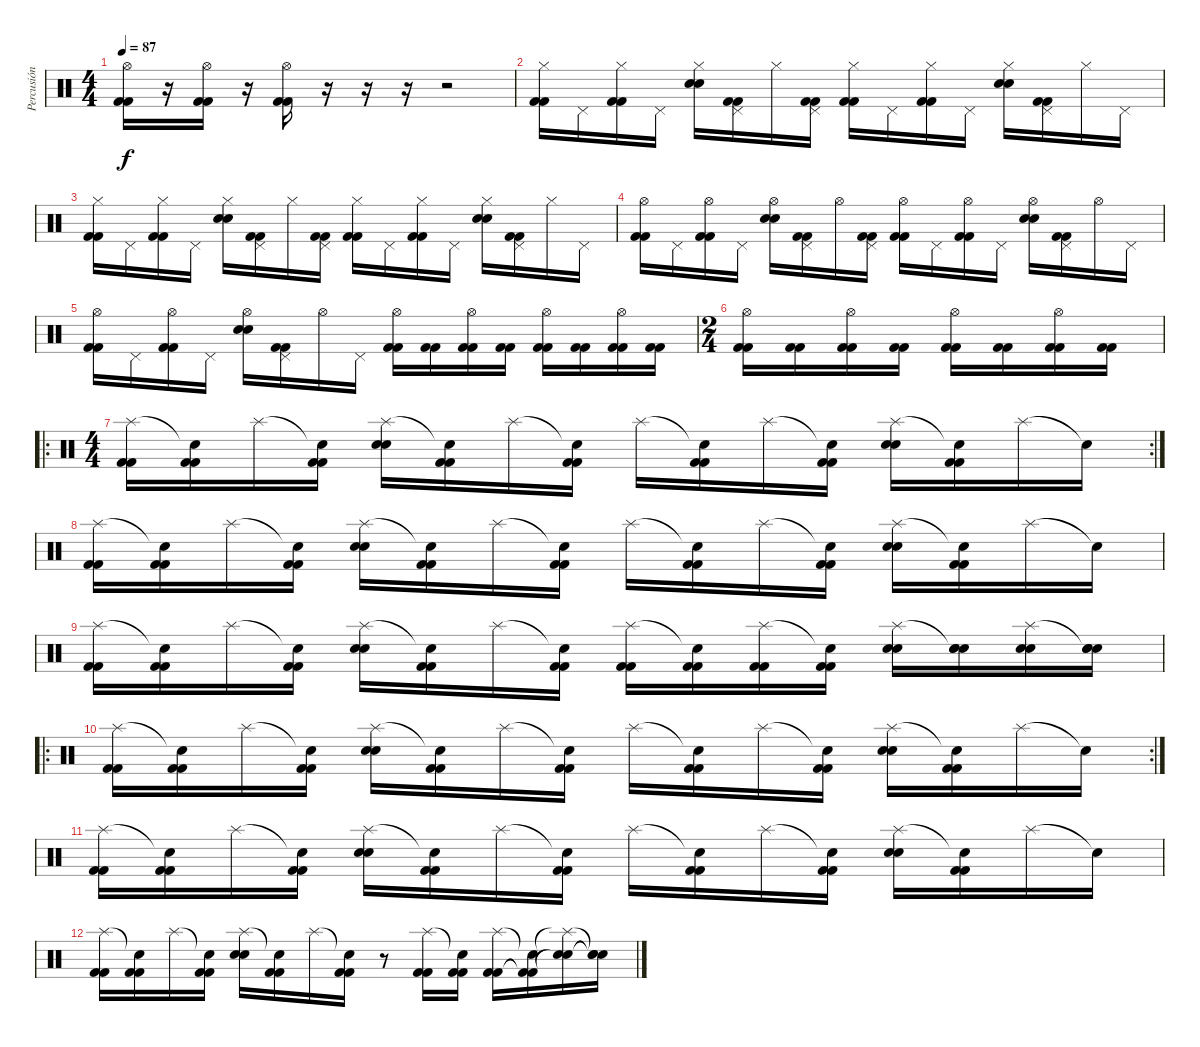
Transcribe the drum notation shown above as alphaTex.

\track ("Percusión" "Percusión") {instrument percussion}
\staff {score}
\articulation defaults
\ts (4 4)
\tempo 87
\clef neutral
\ks c
("Hi-Hat (open)" "Kick (hit) 2" "Kick (hit) 2").16{dy f} r.16 ("Hi-Hat (open)" "Kick (hit) 2" "Kick (hit) 2").16 r.16 ("Hi-Hat (open)" "Kick (hit) 2" "Kick (hit) 2").16 r.16 r.16 r.16 r.2 |
("Hi-Hat (closed)" "Kick (hit) 2" "Kick (hit) 2").16 "Pedal Hi-Hat (hit)".16 ("Hi-Hat (closed)" "Kick (hit) 2" "Kick (hit) 2").16 "Pedal Hi-Hat (hit)".16 ("Hi-Hat (closed)" "Electric Snare (hit)" "Electric Snare (hit)").16 ("Pedal Hi-Hat (hit)" "Kick (hit) 2" "Kick (hit) 2").16 "Hi-Hat (closed)".16 ("Pedal Hi-Hat (hit)" "Kick (hit) 2" "Kick (hit) 2").16 ("Hi-Hat (closed)" "Kick (hit) 2" "Kick (hit) 2").16 "Pedal Hi-Hat (hit)".16 ("Hi-Hat (closed)" "Kick (hit) 2" "Kick (hit) 2").16 "Pedal Hi-Hat (hit)".16 ("Hi-Hat (closed)" "Electric Snare (hit)" "Electric Snare (hit)").16 ("Pedal Hi-Hat (hit)" "Kick (hit) 2" "Kick (hit) 2").16 "Hi-Hat (closed)".16 "Pedal Hi-Hat (hit)".16 |
("Hi-Hat (closed)" "Kick (hit) 2" "Kick (hit) 2").16 "Pedal Hi-Hat (hit)".16 ("Hi-Hat (closed)" "Kick (hit) 2" "Kick (hit) 2").16 "Pedal Hi-Hat (hit)".16 ("Hi-Hat (closed)" "Electric Snare (hit)" "Electric Snare (hit)").16 ("Pedal Hi-Hat (hit)" "Kick (hit) 2" "Kick (hit) 2").16 "Hi-Hat (closed)".16 ("Pedal Hi-Hat (hit)" "Kick (hit) 2" "Kick (hit) 2").16 ("Hi-Hat (closed)" "Kick (hit) 2" "Kick (hit) 2").16 "Pedal Hi-Hat (hit)".16 ("Hi-Hat (closed)" "Kick (hit) 2" "Kick (hit) 2").16 "Pedal Hi-Hat (hit)".16 ("Hi-Hat (closed)" "Electric Snare (hit)" "Electric Snare (hit)").16 ("Pedal Hi-Hat (hit)" "Kick (hit) 2" "Kick (hit) 2").16 "Hi-Hat (closed)".16 "Pedal Hi-Hat (hit)".16 |
("Hi-Hat (open)" "Kick (hit) 2" "Kick (hit) 2").16 "Pedal Hi-Hat (hit)".16 ("Hi-Hat (open)" "Kick (hit) 2" "Kick (hit) 2").16 "Pedal Hi-Hat (hit)".16 ("Hi-Hat (open)" "Electric Snare (hit)" "Electric Snare (hit)").16 ("Pedal Hi-Hat (hit)" "Kick (hit) 2" "Kick (hit) 2").16 "Hi-Hat (open)".16 ("Pedal Hi-Hat (hit)" "Kick (hit) 2" "Kick (hit) 2").16 ("Hi-Hat (open)" "Kick (hit) 2" "Kick (hit) 2").16 "Pedal Hi-Hat (hit)".16 ("Hi-Hat (open)" "Kick (hit) 2" "Kick (hit) 2").16 "Pedal Hi-Hat (hit)".16 ("Hi-Hat (open)" "Electric Snare (hit)" "Electric Snare (hit)").16 ("Pedal Hi-Hat (hit)" "Kick (hit) 2" "Kick (hit) 2").16 "Hi-Hat (open)".16 "Pedal Hi-Hat (hit)".16 |
("Hi-Hat (open)" "Kick (hit) 2" "Kick (hit) 2").16 "Pedal Hi-Hat (hit)".16 ("Hi-Hat (open)" "Kick (hit) 2" "Kick (hit) 2").16 "Pedal Hi-Hat (hit)".16 ("Hi-Hat (open)" "Electric Snare (hit)" "Electric Snare (hit)").16 ("Pedal Hi-Hat (hit)" "Kick (hit) 2" "Kick (hit) 2").16 "Hi-Hat (open)".16 "Pedal Hi-Hat (hit)".16 ("Hi-Hat (open)" "Kick (hit) 2" "Kick (hit) 2").16 ("Kick (hit) 2" "Kick (hit) 2").16 ("Hi-Hat (open)" "Kick (hit) 2" "Kick (hit) 2").16 ("Kick (hit) 2" "Kick (hit) 2").16 ("Hi-Hat (open)" "Kick (hit) 2" "Kick (hit) 2").16 ("Kick (hit) 2" "Kick (hit) 2").16 ("Hi-Hat (open)" "Kick (hit) 2" "Kick (hit) 2").16 ("Kick (hit) 2" "Kick (hit) 2").16 |
\ts (2 4)
("Hi-Hat (open)" "Kick (hit) 2" "Kick (hit) 2").16 ("Kick (hit) 2" "Kick (hit) 2").16 ("Hi-Hat (open)" "Kick (hit) 2" "Kick (hit) 2").16 ("Kick (hit) 2" "Kick (hit) 2").16 ("Hi-Hat (open)" "Kick (hit) 2" "Kick (hit) 2").16 ("Kick (hit) 2" "Kick (hit) 2").16 ("Hi-Hat (open)" "Kick (hit) 2" "Kick (hit) 2").16 ("Kick (hit) 2" "Kick (hit) 2").16 |
\ro
\rc 2
\ts (4 4)
("Splash (hit)" "Kick (hit) 2" "Kick (hit) 2").16 ("Snare (hit)"{t} "Kick (hit) 2" "Kick (hit) 2").16 "Splash (hit)".16 ("Snare (hit)"{t} "Kick (hit) 2" "Kick (hit) 2").16 ("Splash (hit)" "Electric Snare (hit)" "Electric Snare (hit)").16 ("Snare (hit)"{t} "Kick (hit) 2" "Kick (hit) 2").16 "Splash (hit)".16 ("Snare (hit)"{t} "Kick (hit) 2" "Kick (hit) 2").16 "Splash (hit)".16 ("Snare (hit)"{t} "Kick (hit) 2" "Kick (hit) 2").16 "Splash (hit)".16 ("Snare (hit)"{t} "Kick (hit) 2" "Kick (hit) 2").16 ("Splash (hit)" "Electric Snare (hit)" "Electric Snare (hit)").16 ("Snare (hit)"{t} "Kick (hit) 2" "Kick (hit) 2").16 "Splash (hit)".16 "Snare (hit)"{t}.16 |
("Splash (hit)" "Kick (hit) 2" "Kick (hit) 2").16 ("Snare (hit)"{t} "Kick (hit) 2" "Kick (hit) 2").16 "Splash (hit)".16 ("Snare (hit)"{t} "Kick (hit) 2" "Kick (hit) 2").16 ("Splash (hit)" "Electric Snare (hit)" "Electric Snare (hit)").16 ("Snare (hit)"{t} "Kick (hit) 2" "Kick (hit) 2").16 "Splash (hit)".16 ("Snare (hit)"{t} "Kick (hit) 2" "Kick (hit) 2").16 "Splash (hit)".16 ("Snare (hit)"{t} "Kick (hit) 2" "Kick (hit) 2").16 "Splash (hit)".16 ("Snare (hit)"{t} "Kick (hit) 2" "Kick (hit) 2").16 ("Splash (hit)" "Electric Snare (hit)" "Electric Snare (hit)").16 ("Snare (hit)"{t} "Kick (hit) 2" "Kick (hit) 2").16 "Splash (hit)".16 "Snare (hit)"{t}.16 |
("Splash (hit)" "Kick (hit) 2" "Kick (hit) 2").16 ("Snare (hit)"{t} "Kick (hit) 2" "Kick (hit) 2").16 "Splash (hit)".16 ("Snare (hit)"{t} "Kick (hit) 2" "Kick (hit) 2").16 ("Splash (hit)" "Electric Snare (hit)" "Electric Snare (hit)").16 ("Snare (hit)"{t} "Kick (hit) 2" "Kick (hit) 2").16 "Splash (hit)".16 ("Snare (hit)"{t} "Kick (hit) 2" "Kick (hit) 2").16 ("Splash (hit)" "Kick (hit) 2" "Kick (hit) 2").16 ("Snare (hit)"{t} "Kick (hit) 2" "Kick (hit) 2").16 ("Splash (hit)" "Kick (hit) 2" "Kick (hit) 2").16 ("Snare (hit)"{t} "Kick (hit) 2" "Kick (hit) 2").16 ("Splash (hit)" "Electric Snare (hit)" "Electric Snare (hit)").16 ("Snare (hit)"{t} "Electric Snare (hit)" "Electric Snare (hit)").16 ("Splash (hit)" "Electric Snare (hit)" "Electric Snare (hit)").16 ("Snare (hit)"{t} "Electric Snare (hit)" "Electric Snare (hit)").16 |
\ro
\rc 2
("Splash (hit)" "Kick (hit) 2" "Kick (hit) 2").16 ("Snare (hit)"{t} "Kick (hit) 2" "Kick (hit) 2").16 "Splash (hit)".16 ("Snare (hit)"{t} "Kick (hit) 2" "Kick (hit) 2").16 ("Splash (hit)" "Electric Snare (hit)" "Electric Snare (hit)").16 ("Snare (hit)"{t} "Kick (hit) 2" "Kick (hit) 2").16 "Splash (hit)".16 ("Snare (hit)"{t} "Kick (hit) 2" "Kick (hit) 2").16 "Splash (hit)".16 ("Snare (hit)"{t} "Kick (hit) 2" "Kick (hit) 2").16 "Splash (hit)".16 ("Snare (hit)"{t} "Kick (hit) 2" "Kick (hit) 2").16 ("Splash (hit)" "Electric Snare (hit)" "Electric Snare (hit)").16 ("Snare (hit)"{t} "Kick (hit) 2" "Kick (hit) 2").16 "Splash (hit)".16 "Snare (hit)"{t}.16 |
("Splash (hit)" "Kick (hit) 2" "Kick (hit) 2").16 ("Snare (hit)"{t} "Kick (hit) 2" "Kick (hit) 2").16 "Splash (hit)".16 ("Snare (hit)"{t} "Kick (hit) 2" "Kick (hit) 2").16 ("Splash (hit)" "Electric Snare (hit)" "Electric Snare (hit)").16 ("Snare (hit)"{t} "Kick (hit) 2" "Kick (hit) 2").16 "Splash (hit)".16 ("Snare (hit)"{t} "Kick (hit) 2" "Kick (hit) 2").16 "Splash (hit)".16 ("Snare (hit)"{t} "Kick (hit) 2" "Kick (hit) 2").16 "Splash (hit)".16 ("Snare (hit)"{t} "Kick (hit) 2" "Kick (hit) 2").16 ("Splash (hit)" "Electric Snare (hit)" "Electric Snare (hit)").16 ("Snare (hit)"{t} "Kick (hit) 2" "Kick (hit) 2").16 "Splash (hit)".16 "Snare (hit)"{t}.16 |
("Splash (hit)" "Kick (hit) 2" "Kick (hit) 2").16 ("Snare (hit)"{t} "Kick (hit) 2" "Kick (hit) 2").16 "Splash (hit)".16 ("Snare (hit)"{t} "Kick (hit) 2" "Kick (hit) 2").16 ("Splash (hit)" "Electric Snare (hit)" "Electric Snare (hit)").16 ("Snare (hit)"{t} "Kick (hit) 2" "Kick (hit) 2").16 "Splash (hit)".16 ("Snare (hit)"{t} "Kick (hit) 2" "Kick (hit) 2").16 r.8 ("Splash (hit)" "Kick (hit) 2" "Kick (hit) 2").16 ("Snare (hit)"{t} "Kick (hit) 2" "Kick (hit) 2").16 ("Splash (hit)" "Kick (hit) 2" "Kick (hit) 2").16 ("Snare (hit)"{t} "Kick (hit) 2"{t} "Kick (hit) 2"{t}).16 ("Splash (hit)"{t} "Electric Snare (hit)"{t} "Electric Snare (hit)"{t}).16 ("Snare (hit)"{t} "Electric Snare (hit)"{t} "Electric Snare (hit)"{t}).16
